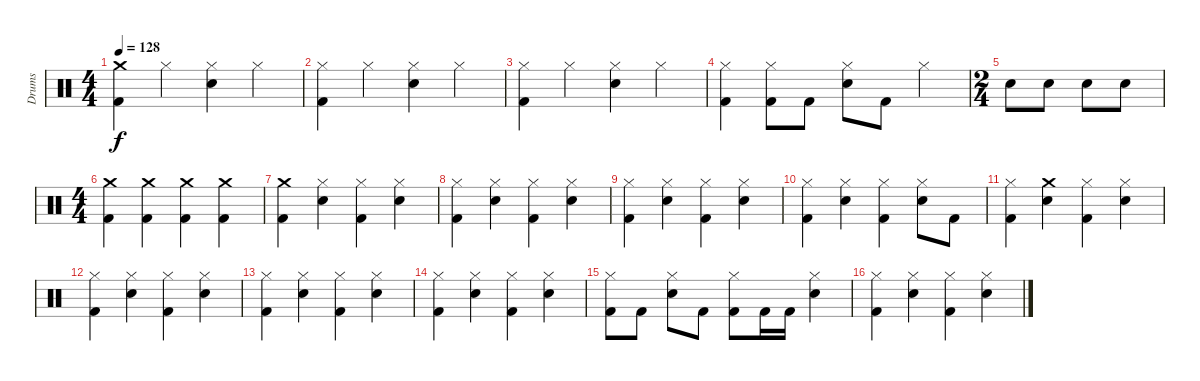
\track ("Drums" "Drums") {instrument percussion}
\staff {score}
\articulation defaults
\ts (4 4)
\tempo 128
\clef neutral
\ks c
("Kick (hit) 2" "Crash medium (hit)").4{dy f} "Hi-Hat (closed)".4 ("Snare (hit) 2" "Hi-Hat (closed)").4 "Hi-Hat (closed)".4 |
("Kick (hit) 2" "Hi-Hat (closed)").4 "Hi-Hat (closed)".4 ("Snare (hit) 2" "Hi-Hat (closed)").4 "Hi-Hat (closed)".4 |
("Kick (hit) 2" "Hi-Hat (closed)").4 "Hi-Hat (closed)".4 ("Snare (hit) 2" "Hi-Hat (closed)").4 "Hi-Hat (closed)".4 |
("Kick (hit) 2" "Hi-Hat (closed)").4 ("Kick (hit) 2" "Hi-Hat (closed)").8 "Kick (hit) 2".8 ("Snare (hit) 2" "Hi-Hat (closed)").8 "Kick (hit) 2".8 "Hi-Hat (closed)".4 |
\ts (2 4)
"Snare (hit) 2".8 "Snare (hit) 2".8 "Snare (hit) 2".8 "Snare (hit) 2".8 |
\ts (4 4)
("Kick (hit) 2" "Crash medium (hit)").4 ("Kick (hit) 2" "Crash medium (hit)").4 ("Kick (hit) 2" "Crash medium (hit)").4 ("Kick (hit) 2" "Crash medium (hit)").4 |
("Kick (hit) 2" "Crash medium (hit)").4 ("Hi-Hat (closed)" "Snare (hit) 2").4 ("Kick (hit) 2" "Hi-Hat (closed)").4 ("Hi-Hat (closed)" "Snare (hit) 2").4 |
("Kick (hit) 2" "Hi-Hat (closed)").4 ("Hi-Hat (closed)" "Snare (hit) 2").4 ("Kick (hit) 2" "Hi-Hat (closed)").4 ("Hi-Hat (closed)" "Snare (hit) 2").4 |
("Kick (hit) 2" "Hi-Hat (closed)").4 ("Snare (hit) 2" "Hi-Hat (closed)").4 ("Kick (hit) 2" "Hi-Hat (closed)").4 ("Snare (hit) 2" "Hi-Hat (closed)").4 |
("Kick (hit) 2" "Hi-Hat (closed)").4 ("Snare (hit) 2" "Hi-Hat (closed)").4 ("Kick (hit) 2" "Hi-Hat (closed)").4 ("Snare (hit) 2" "Hi-Hat (closed)").8 "Kick (hit) 2".8 |
("Hi-Hat (closed)" "Kick (hit) 2").4 ("Crash medium (hit)" "Snare (hit) 2").4 ("Hi-Hat (closed)" "Kick (hit) 2").4 ("Snare (hit) 2" "Hi-Hat (closed)").4 |
("Kick (hit) 2" "Hi-Hat (closed)").4 ("Snare (hit) 2" "Hi-Hat (closed)").4 ("Kick (hit) 2" "Hi-Hat (closed)").4 ("Snare (hit) 2" "Hi-Hat (closed)").4 |
("Kick (hit) 2" "Hi-Hat (closed)").4 ("Snare (hit) 2" "Hi-Hat (closed)").4 ("Kick (hit) 2" "Hi-Hat (closed)").4 ("Snare (hit) 2" "Hi-Hat (closed)").4 |
("Kick (hit) 2" "Hi-Hat (closed)").4 ("Snare (hit) 2" "Hi-Hat (closed)").4 ("Kick (hit) 2" "Hi-Hat (closed)").4 ("Snare (hit) 2" "Hi-Hat (closed)").4 |
("Kick (hit) 2" "Hi-Hat (closed)").8 "Kick (hit) 2".8 ("Snare (hit) 2" "Hi-Hat (closed)").8 "Kick (hit) 2".8 ("Kick (hit) 2" "Hi-Hat (closed)").8 "Kick (hit) 2".16 "Kick (hit) 2".16 ("Snare (hit) 2" "Hi-Hat (closed)").4 |
("Kick (hit) 2" "Hi-Hat (closed)").4 ("Snare (hit) 2" "Hi-Hat (closed)").4 ("Kick (hit) 2" "Hi-Hat (closed)").4 ("Snare (hit) 2" "Hi-Hat (closed)").4
